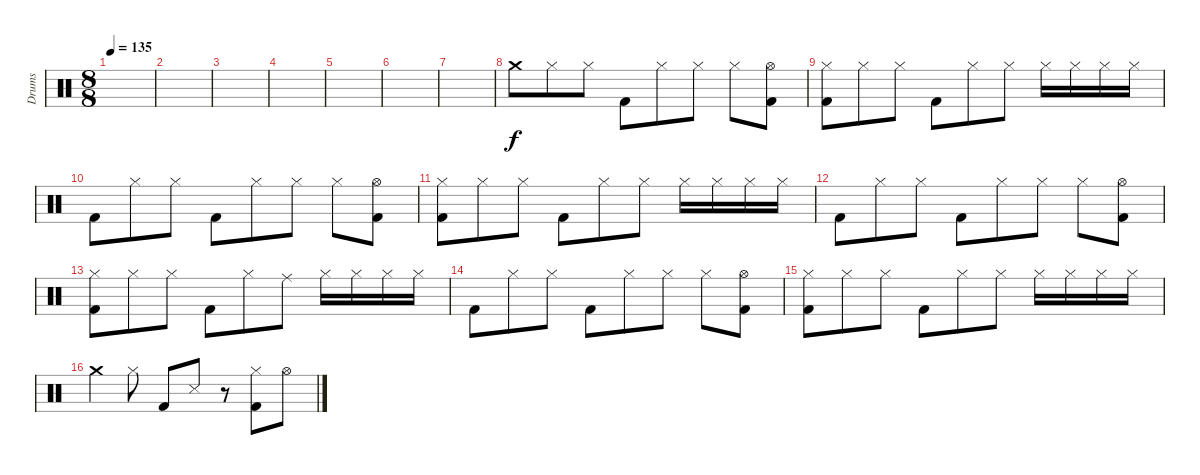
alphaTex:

\track ("Drums" "Drums") {instrument percussion}
\staff {score}
\articulation defaults
\ts (8 8)
\tempo 135
\clef neutral
\ks c
|
|
|
|
|
|
|
"Crash medium (hit)".8 "Hi-Hat (closed)".8 "Hi-Hat (closed)".8 "Kick (hit) 2".8 "Hi-Hat (closed)".8 "Hi-Hat (closed)".8 "Hi-Hat (closed)".8 ("Hi-Hat (open)" "Kick (hit) 2").8 |
("Hi-Hat (closed)" "Kick (hit) 2").8 "Hi-Hat (closed)".8 "Hi-Hat (closed)".8 "Kick (hit) 2".8 "Hi-Hat (closed)".8 "Hi-Hat (closed)".8 "Hi-Hat (closed)".16 "Hi-Hat (closed)".16 "Hi-Hat (closed)".16 "Hi-Hat (closed)".16 |
"Kick (hit) 2".8 "Hi-Hat (closed)".8 "Hi-Hat (closed)".8 "Kick (hit) 2".8 "Hi-Hat (closed)".8 "Hi-Hat (closed)".8 "Hi-Hat (closed)".8 ("Hi-Hat (open)" "Kick (hit) 2").8 |
("Hi-Hat (closed)" "Kick (hit) 2").8 "Hi-Hat (closed)".8 "Hi-Hat (closed)".8 "Kick (hit) 2".8 "Hi-Hat (closed)".8 "Hi-Hat (closed)".8 "Hi-Hat (closed)".16 "Hi-Hat (closed)".16 "Hi-Hat (closed)".16 "Hi-Hat (closed)".16 |
"Kick (hit) 2".8 "Hi-Hat (closed)".8 "Hi-Hat (closed)".8 "Kick (hit) 2".8 "Hi-Hat (closed)".8 "Hi-Hat (closed)".8 "Hi-Hat (closed)".8 ("Hi-Hat (open)" "Kick (hit) 2").8 |
("Hi-Hat (closed)" "Kick (hit) 2").8 "Hi-Hat (closed)".8 "Hi-Hat (closed)".8 "Kick (hit) 2".8 "Hi-Hat (closed)".8 "Ride (middle)".8 "Hi-Hat (closed)".16 "Hi-Hat (closed)".16 "Hi-Hat (closed)".16 "Hi-Hat (closed)".16 |
"Kick (hit) 2".8 "Hi-Hat (closed)".8 "Hi-Hat (closed)".8 "Kick (hit) 2".8 "Hi-Hat (closed)".8 "Hi-Hat (closed)".8 "Hi-Hat (closed)".8 ("Hi-Hat (open)" "Kick (hit) 2").8 |
("Hi-Hat (closed)" "Kick (hit) 2").8 "Hi-Hat (closed)".8 "Hi-Hat (closed)".8 "Kick (hit) 2".8 "Hi-Hat (closed)".8 "Hi-Hat (closed)".8 "Hi-Hat (closed)".16 "Hi-Hat (closed)".16 "Hi-Hat (closed)".16 "Hi-Hat (closed)".16 |
"Crash medium (hit)".4 "Hi-Hat (closed)".8 "Kick (hit) 2".8 "Snare (side stick) 3".8 r.8 ("Hi-Hat (closed)" "Kick (hit) 2").8 "Hi-Hat (open)".8
